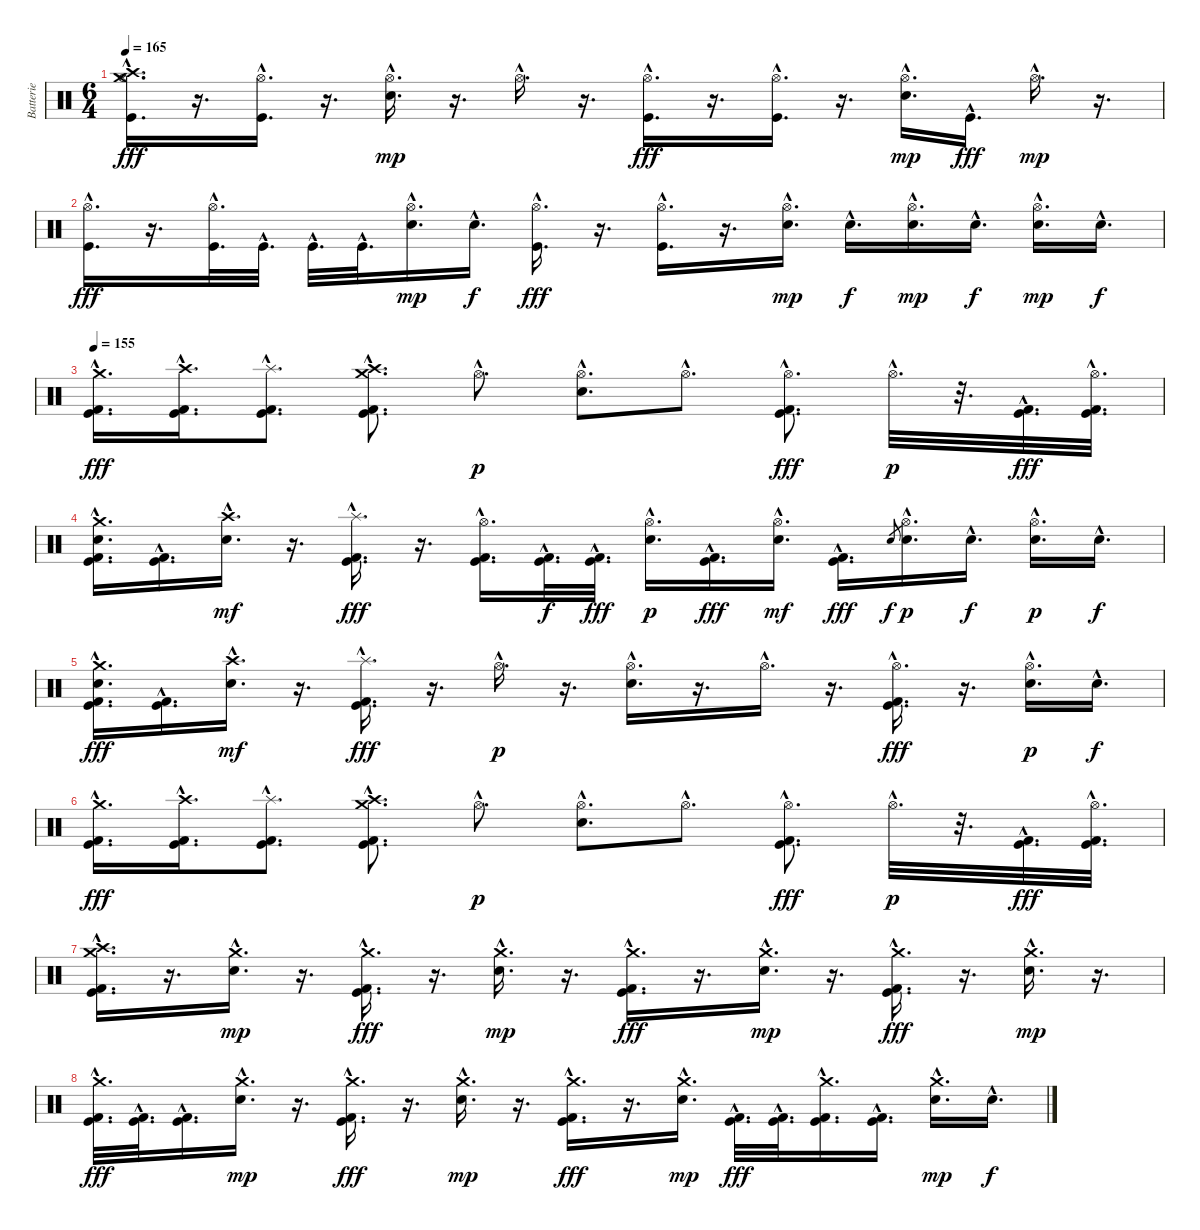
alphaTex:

\track ("Batterie" "Batterie") {instrument percussion}
\staff {score}
\articulation defaults
\ts (6 4)
\tempo 165
\clef neutral
\ks c
("Hi-Hat (open)"{hac} "Crash medium (hit)"{hac} "Crash high (hit)"{hac} "Kick (hit)"{hac}).16{d dy fff} r.16{d} ("Hi-Hat (open)"{hac} "Kick (hit)"{hac}).16{d} r.16{d} ("Hi-Hat (open)"{hac} "Electric Snare (hit)"{hac}).16{d dy mp} r.16{d} "Hi-Hat (open)"{hac}.16{d} r.16{d} ("Hi-Hat (open)"{hac} "Kick (hit)"{hac}).16{d dy fff} r.16{d} ("Hi-Hat (open)"{hac} "Kick (hit)"{hac}).16{d} r.16{d} ("Hi-Hat (open)"{hac} "Electric Snare (hit)"{hac}).16{d dy mp} "Kick (hit)"{hac}.16{d dy fff} "Hi-Hat (open)"{hac}.16{d dy mp} r.16{d} |
("Hi-Hat (open)"{hac} "Kick (hit)"{hac}).16{d dy fff} r.16{d} ("Hi-Hat (open)"{hac} "Kick (hit)"{hac}).32{d} "Kick (hit)"{hac}.32{d} "Kick (hit)"{hac}.32{d} "Kick (hit)"{hac}.32{d} ("Hi-Hat (open)"{hac} "Electric Snare (hit)"{hac}).16{d dy mp} "Electric Snare (hit)"{hac}.16{d dy f} ("Hi-Hat (open)"{hac} "Kick (hit)"{hac}).16{d dy fff} r.16{d} ("Hi-Hat (open)"{hac} "Kick (hit)"{hac}).16{d} r.16{d} ("Hi-Hat (open)"{hac} "Electric Snare (hit)"{hac}).16{d dy mp} "Electric Snare (hit)"{hac}.16{d dy f} ("Hi-Hat (open)"{hac} "Electric Snare (hit)"{hac}).16{d dy mp} "Electric Snare (hit)"{hac}.16{d dy f} ("Hi-Hat (open)"{hac} "Electric Snare (hit)"{hac}).16{d dy mp} "Electric Snare (hit)"{hac}.16{d dy f} |
\tempo 155
("Crash medium (hit)"{hac} "Kick (hit)"{hac} "Kick (hit) 2"{hac}).16{d dy fff} ("Crash high (hit)"{hac} "Kick (hit)"{hac} "Kick (hit) 2"{hac}).16{d} ("Splash (hit)"{hac} "Kick (hit)"{hac} "Kick (hit) 2"{hac}).8{d} ("Crash medium (hit)"{hac} "Crash high (hit)"{hac} "Kick (hit)"{hac} "Kick (hit) 2"{hac}).8{d} "Hi-Hat (open)"{hac}.8{d dy p} ("Hi-Hat (open)"{hac} "Electric Snare (hit)"{hac}).8{d} "Hi-Hat (open)"{hac}.8{d} ("Hi-Hat (open)"{hac} "Kick (hit)"{hac} "Kick (hit) 2"{hac}).8{d dy fff} "Hi-Hat (open)"{hac}.32{d dy p} r.32{d} ("Kick (hit)"{hac} "Kick (hit) 2"{hac}).32{d dy fff} ("Hi-Hat (open)"{hac} "Kick (hit)"{hac} "Kick (hit) 2"{hac}).32{d} |
("Crash medium (hit)"{hac} "Electric Snare (hit)"{hac} "Kick (hit)"{hac} "Kick (hit) 2"{hac}).16{d} ("Kick (hit)"{hac} "Kick (hit) 2"{hac}).16{d} ("Crash high (hit)"{hac} "Electric Snare (hit)"{hac}).16{d dy mf} r.16{d} ("Splash (hit)"{hac} "Kick (hit) 2"{hac} "Kick (hit)"{hac}).16{d dy fff} r.16{d} ("Hi-Hat (open)"{hac} "Kick (hit)"{hac} "Kick (hit) 2"{hac}).16{d} ("Kick (hit)"{hac} "Kick (hit) 2"{hac}).32{d dy f} ("Kick (hit)"{hac} "Kick (hit) 2"{hac}).32{d dy fff} ("Hi-Hat (open)"{hac} "Electric Snare (hit)"{hac}).16{d dy p} ("Kick (hit)"{hac} "Kick (hit) 2"{hac}).16{d dy fff} ("Hi-Hat (open)"{hac} "Electric Snare (hit)"{hac}).16{d dy mf} ("Kick (hit)"{hac} "Kick (hit) 2"{hac}).16{d dy fff} "Electric Snare (hit)".8{gr dy f} ("Hi-Hat (open)"{hac} "Electric Snare (hit)"{hac}).16{d dy p} "Electric Snare (hit)"{hac}.16{d dy f} ("Hi-Hat (open)"{hac} "Electric Snare (hit)"{hac}).16{d dy p} "Electric Snare (hit)"{hac}.16{d dy f} |
("Crash medium (hit)"{hac} "Electric Snare (hit)"{hac} "Kick (hit)"{hac} "Kick (hit) 2"{hac}).16{d dy fff} ("Kick (hit)"{hac} "Kick (hit) 2"{hac}).16{d} ("Crash high (hit)"{hac} "Electric Snare (hit)"{hac}).16{d dy mf} r.16{d} ("Splash (hit)"{hac} "Kick (hit)"{hac} "Kick (hit) 2"{hac}).16{d dy fff} r.16{d} "Hi-Hat (open)"{hac}.16{d dy p} r.16{d} ("Hi-Hat (open)"{hac} "Electric Snare (hit)"{hac}).16{d} r.16{d} "Hi-Hat (open)"{hac}.16{d} r.16{d} ("Hi-Hat (open)"{hac} "Kick (hit) 2"{hac} "Kick (hit)"{hac}).16{d dy fff} r.16{d} ("Hi-Hat (open)"{hac} "Electric Snare (hit)"{hac}).16{d dy p} "Electric Snare (hit)"{hac}.16{d dy f} |
("Crash medium (hit)"{hac} "Kick (hit)"{hac} "Kick (hit) 2"{hac}).16{d dy fff} ("Crash high (hit)"{hac} "Kick (hit)"{hac} "Kick (hit) 2"{hac}).16{d} ("Splash (hit)"{hac} "Kick (hit)"{hac} "Kick (hit) 2"{hac}).8{d} ("Crash medium (hit)"{hac} "Crash high (hit)"{hac} "Kick (hit)"{hac} "Kick (hit) 2"{hac}).8{d} "Hi-Hat (open)"{hac}.8{d dy p} ("Hi-Hat (open)"{hac} "Electric Snare (hit)"{hac}).8{d} "Hi-Hat (open)"{hac}.8{d} ("Hi-Hat (open)"{hac} "Kick (hit)"{hac} "Kick (hit) 2"{hac}).8{d dy fff} "Hi-Hat (open)"{hac}.32{d dy p} r.32{d} ("Kick (hit)"{hac} "Kick (hit) 2"{hac}).32{d dy fff} ("Hi-Hat (open)"{hac} "Kick (hit)"{hac} "Kick (hit) 2"{hac}).32{d} |
("Crash medium (hit)"{hac} "Crash high (hit)"{hac} "Kick (hit) 2"{hac} "Kick (hit)"{hac}).16{d} r.16{d} ("Crash medium (hit)"{hac} "Electric Snare (hit)"{hac}).16{d dy mp} r.16{d} ("Crash medium (hit)"{hac} "Kick (hit) 2"{hac} "Kick (hit)"{hac}).16{d dy fff} r.16{d} ("Crash medium (hit)"{hac} "Electric Snare (hit)"{hac}).16{d dy mp} r.16{d} ("Crash medium (hit)"{hac} "Kick (hit) 2"{hac} "Kick (hit)"{hac}).16{d dy fff} r.16{d} ("Crash medium (hit)"{hac} "Electric Snare (hit)"{hac}).16{d dy mp} r.16{d} ("Crash medium (hit)"{hac} "Kick (hit) 2"{hac} "Kick (hit)"{hac}).16{d dy fff} r.16{d} ("Crash medium (hit)"{hac} "Electric Snare (hit)"{hac}).16{d dy mp} r.16{d} |
("Crash medium (hit)"{hac} "Kick (hit)"{hac} "Kick (hit) 2"{hac}).32{d dy fff} ("Kick (hit)"{hac} "Kick (hit) 2"{hac}).32{d} ("Kick (hit)"{hac} "Kick (hit) 2"{hac}).16{d} ("Crash medium (hit)"{hac} "Electric Snare (hit)"{hac}).16{d dy mp} r.16{d} ("Crash medium (hit)"{hac} "Kick (hit)"{hac} "Kick (hit) 2"{hac}).16{d dy fff} r.16{d} ("Crash medium (hit)"{hac} "Electric Snare (hit)"{hac}).16{d dy mp} r.16{d} ("Crash medium (hit)"{hac} "Kick (hit)"{hac} "Kick (hit) 2"{hac}).16{d dy fff} r.16{d} ("Crash medium (hit)"{hac} "Electric Snare (hit)"{hac}).16{d dy mp} ("Kick (hit)"{hac} "Kick (hit) 2"{hac}).32{d dy fff} ("Kick (hit)"{hac} "Kick (hit) 2"{hac}).32{d} ("Crash medium (hit)"{hac} "Kick (hit)"{hac} "Kick (hit) 2"{hac}).16{d} ("Kick (hit)"{hac} "Kick (hit) 2"{hac}).16{d} ("Crash medium (hit)"{hac} "Electric Snare (hit)"{hac}).16{d dy mp} "Electric Snare (hit)"{hac}.16{d dy f}
